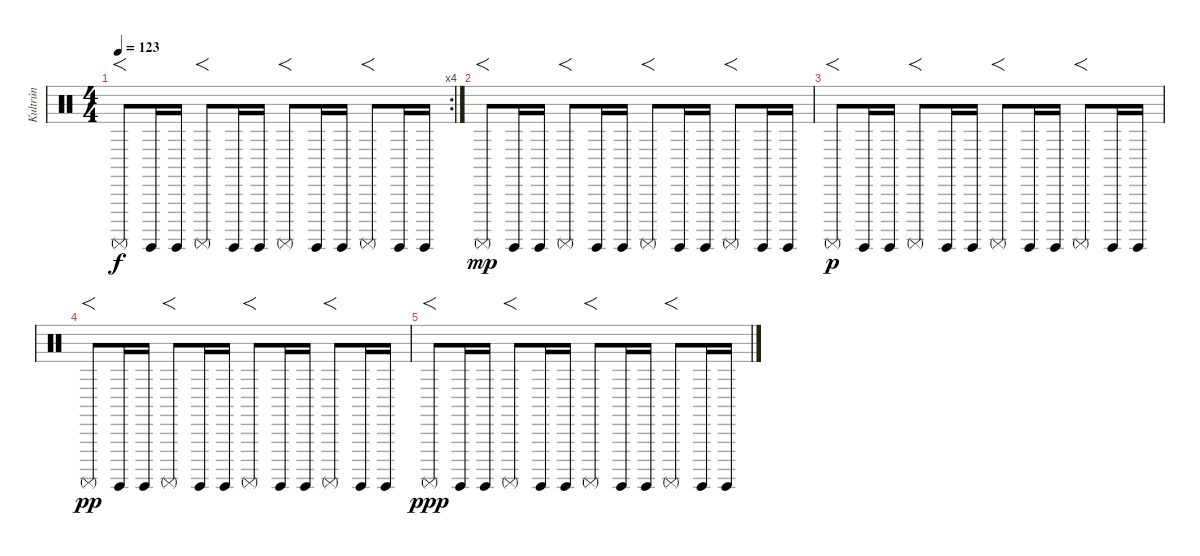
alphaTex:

\track ("Kultrún" "Kultrún") {instrument percussion}
\staff {score}
\articulation defaults
\rc 4
\ts (4 4)
\tempo 123
\clef neutral
\ks c "Surdo (mute)".8{f dy f} "Surdo (hit)".16 "Surdo (hit)".16 "Surdo (mute)".8{f} "Surdo (hit)".16 "Surdo (hit)".16 "Surdo (mute)".8{f} "Surdo (hit)".16 "Surdo (hit)".16 "Surdo (mute)".8{f} "Surdo (hit)".16 "Surdo (hit)".16
|
"Surdo (mute)".8{f dy mp} "Surdo (hit)".16 "Surdo (hit)".16 "Surdo (mute)".8{f} "Surdo (hit)".16 "Surdo (hit)".16 "Surdo (mute)".8{f} "Surdo (hit)".16 "Surdo (hit)".16 "Surdo (mute)".8{f} "Surdo (hit)".16 "Surdo (hit)".16 |
"Surdo (mute)".8{f dy p} "Surdo (hit)".16 "Surdo (hit)".16 "Surdo (mute)".8{f} "Surdo (hit)".16 "Surdo (hit)".16 "Surdo (mute)".8{f} "Surdo (hit)".16 "Surdo (hit)".16 "Surdo (mute)".8{f} "Surdo (hit)".16 "Surdo (hit)".16 |
"Surdo (mute)".8{f dy pp} "Surdo (hit)".16 "Surdo (hit)".16 "Surdo (mute)".8{f} "Surdo (hit)".16 "Surdo (hit)".16 "Surdo (mute)".8{f} "Surdo (hit)".16 "Surdo (hit)".16 "Surdo (mute)".8{f} "Surdo (hit)".16 "Surdo (hit)".16 |
"Surdo (mute)".8{f dy ppp} "Surdo (hit)".16 "Surdo (hit)".16 "Surdo (mute)".8{f} "Surdo (hit)".16 "Surdo (hit)".16 "Surdo (mute)".8{f} "Surdo (hit)".16 "Surdo (hit)".16 "Surdo (mute)".8{f} "Surdo (hit)".16 "Surdo (hit)".16
